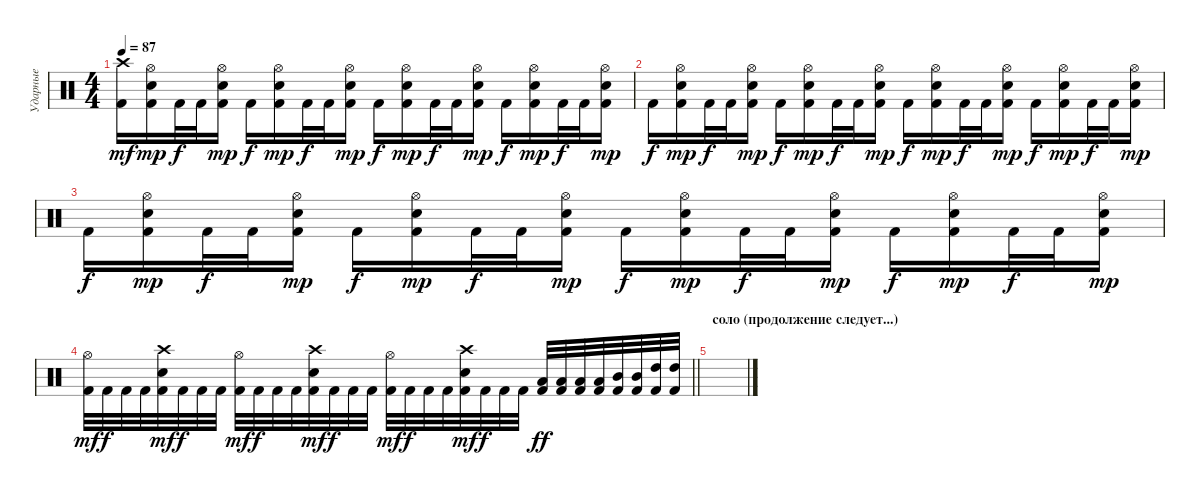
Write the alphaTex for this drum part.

\track ("Ударные" "Ударные") {instrument percussion}
\staff {score}
\articulation defaults
\ts (4 4)
\tempo 87
\clef neutral
\ks c
("Kick (hit) 2" "Crash high (hit)").16{dy mf} ("Kick (hit) 2" "Electric Snare (hit)" "Hi-Hat (open)").16{dy mp} "Kick (hit) 2".32{dy f} "Kick (hit) 2".32 ("Kick (hit) 2" "Electric Snare (hit)" "Hi-Hat (open)").16{dy mp} "Kick (hit) 2".16{dy f} ("Kick (hit) 2" "Electric Snare (hit)" "Hi-Hat (open)").16{dy mp} "Kick (hit) 2".32{dy f} "Kick (hit) 2".32 ("Kick (hit) 2" "Electric Snare (hit)" "Hi-Hat (open)").16{dy mp} "Kick (hit) 2".16{dy f} ("Kick (hit) 2" "Electric Snare (hit)" "Hi-Hat (open)").16{dy mp} "Kick (hit) 2".32{dy f} "Kick (hit) 2".32 ("Kick (hit) 2" "Electric Snare (hit)" "Hi-Hat (open)").16{dy mp} "Kick (hit) 2".16{dy f} ("Kick (hit) 2" "Electric Snare (hit)" "Hi-Hat (open)").16{dy mp} "Kick (hit) 2".32{dy f} "Kick (hit) 2".32 ("Kick (hit) 2" "Electric Snare (hit)" "Hi-Hat (open)").16{dy mp} |
"Kick (hit) 2".16{dy f} ("Kick (hit) 2" "Electric Snare (hit)" "Hi-Hat (open)").16{dy mp} "Kick (hit) 2".32{dy f} "Kick (hit) 2".32 ("Kick (hit) 2" "Electric Snare (hit)" "Hi-Hat (open)").16{dy mp} "Kick (hit) 2".16{dy f} ("Kick (hit) 2" "Electric Snare (hit)" "Hi-Hat (open)").16{dy mp} "Kick (hit) 2".32{dy f} "Kick (hit) 2".32 ("Kick (hit) 2" "Electric Snare (hit)" "Hi-Hat (open)").16{dy mp} "Kick (hit) 2".16{dy f} ("Kick (hit) 2" "Electric Snare (hit)" "Hi-Hat (open)").16{dy mp} "Kick (hit) 2".32{dy f} "Kick (hit) 2".32 ("Kick (hit) 2" "Electric Snare (hit)" "Hi-Hat (open)").16{dy mp} "Kick (hit) 2".16{dy f} ("Kick (hit) 2" "Electric Snare (hit)" "Hi-Hat (open)").16{dy mp} "Kick (hit) 2".32{dy f} "Kick (hit) 2".32 ("Kick (hit) 2" "Electric Snare (hit)" "Hi-Hat (open)").16{dy mp} |
"Kick (hit) 2".16{dy f} ("Kick (hit) 2" "Electric Snare (hit)" "Hi-Hat (open)").16{dy mp} "Kick (hit) 2".32{dy f} "Kick (hit) 2".32 ("Kick (hit) 2" "Electric Snare (hit)" "Hi-Hat (open)").16{dy mp} "Kick (hit) 2".16{dy f} ("Kick (hit) 2" "Electric Snare (hit)" "Hi-Hat (open)").16{dy mp} "Kick (hit) 2".32{dy f} "Kick (hit) 2".32 ("Kick (hit) 2" "Electric Snare (hit)" "Hi-Hat (open)").16{dy mp} "Kick (hit) 2".16{dy f} ("Kick (hit) 2" "Electric Snare (hit)" "Hi-Hat (open)").16{dy mp} "Kick (hit) 2".32{dy f} "Kick (hit) 2".32 ("Kick (hit) 2" "Electric Snare (hit)" "Hi-Hat (open)").16{dy mp} "Kick (hit) 2".16{dy f} ("Kick (hit) 2" "Electric Snare (hit)" "Hi-Hat (open)").16{dy mp} "Kick (hit) 2".32{dy f} "Kick (hit) 2".32 ("Kick (hit) 2" "Electric Snare (hit)" "Hi-Hat (open)").16{dy mp} |
\barLineRight lightlight
("Kick (hit) 2" "Hi-Hat (open)").32{dy mf} "Kick (hit) 2".32{dy f} "Kick (hit) 2".32 "Kick (hit) 2".32 ("Kick (hit) 2" "Electric Snare (hit)" "Crash high (hit)").32{dy mf} "Kick (hit) 2".32{dy f} "Kick (hit) 2".32 "Kick (hit) 2".32 ("Kick (hit) 2" "Hi-Hat (open)").32{dy mf} "Kick (hit) 2".32{dy f} "Kick (hit) 2".32 "Kick (hit) 2".32 ("Kick (hit) 2" "Electric Snare (hit)" "Crash high (hit)").32{dy mf} "Kick (hit) 2".32{dy f} "Kick (hit) 2".32 "Kick (hit) 2".32 ("Kick (hit) 2" "Hi-Hat (open)").32{dy mf} "Kick (hit) 2".32{dy f} "Kick (hit) 2".32 "Kick (hit) 2".32 ("Kick (hit) 2" "Electric Snare (hit)" "Crash high (hit)").32{dy mf} "Kick (hit) 2".32{dy f} "Kick (hit) 2".32 "Kick (hit) 2".32 ("Kick (hit) 2" "Low Tom (hit)").32{dy ff} ("Kick (hit) 2" "Low Tom (hit)").32 ("Kick (hit) 2" "Low Tom (hit)").32 ("Kick (hit) 2" "Low Tom (hit)").32 ("Kick (hit) 2" "Mid Tom (hit)").32 ("Kick (hit) 2" "Mid Tom (hit)").32 ("Kick (hit) 2" "High Tom (hit)").32 ("Kick (hit) 2" "High Tom (hit)").32 |
\section ("" "соло (продолжение следует...)")
